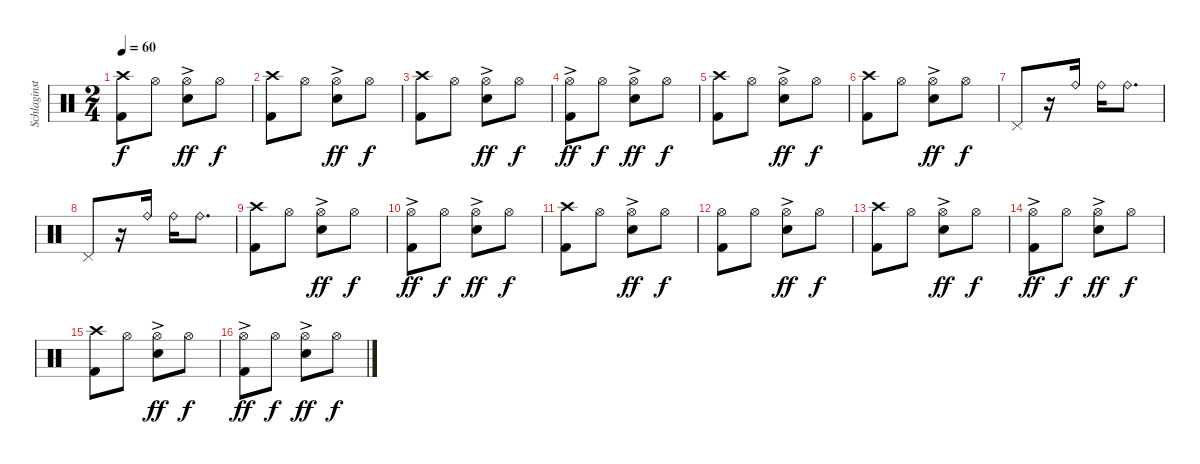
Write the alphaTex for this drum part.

\track ("Schlaginstrumente - Auswahl" "Schlaginst") {instrument percussion}
\staff {score}
\articulation defaults
\ts (2 4)
\tempo 60
\clef neutral
\ks c
("Crash high (hit)" "Kick (hit) 2").8{dy f} "Hi-Hat (open)".8 ("Hi-Hat (open)"{ac} "Snare (hit) 2").8{dy ff} "Hi-Hat (open)".8{dy f} |
("Crash high (hit)" "Kick (hit) 2").8 "Hi-Hat (open)".8 ("Hi-Hat (open)"{ac} "Snare (hit) 2").8{dy ff} "Hi-Hat (open)".8{dy f} |
("Crash high (hit)" "Kick (hit) 2").8 "Hi-Hat (open)".8 ("Hi-Hat (open)"{ac} "Snare (hit) 2").8{dy ff} "Hi-Hat (open)".8{dy f} |
("Hi-Hat (open)"{ac} "Kick (hit) 2").8{dy ff} "Hi-Hat (open)".8{dy f} ("Hi-Hat (open)"{ac} "Snare (hit) 2").8{dy ff} "Hi-Hat (open)".8{dy f} |
("Crash high (hit)" "Kick (hit) 2").8 "Hi-Hat (open)".8 ("Hi-Hat (open)"{ac} "Snare (hit) 2").8{dy ff} "Hi-Hat (open)".8{dy f} |
("Crash high (hit)" "Kick (hit) 2").8 "Hi-Hat (open)".8 ("Hi-Hat (open)"{ac} "Snare (hit) 2").8{dy ff} "Hi-Hat (open)".8{dy f} |
"Pedal Hi-Hat (hit)".8 r.16 "Ride (bell)".16 "Ride (bell)".16 "Ride (bell)".8{d} |
"Pedal Hi-Hat (hit)".8 r.16 "Ride (bell)".16 "Ride (bell)".16 "Ride (bell)".8{d} |
("Crash high (hit)" "Kick (hit) 2").8 "Hi-Hat (open)".8 ("Hi-Hat (open)"{ac} "Snare (hit) 2").8{dy ff} "Hi-Hat (open)".8{dy f} |
("Hi-Hat (open)"{ac} "Kick (hit) 2").8{dy ff} "Hi-Hat (open)".8{dy f} ("Hi-Hat (open)"{ac} "Snare (hit) 2").8{dy ff} "Hi-Hat (open)".8{dy f} |
("Crash high (hit)" "Kick (hit) 2").8 "Hi-Hat (open)".8 ("Hi-Hat (open)"{ac} "Snare (hit) 2").8{dy ff} "Hi-Hat (open)".8{dy f} |
("Hi-Hat (open)" "Kick (hit) 2").8 "Hi-Hat (open)".8 ("Hi-Hat (open)"{ac} "Snare (hit) 2").8{dy ff} "Hi-Hat (open)".8{dy f} |
("Crash high (hit)" "Kick (hit) 2").8 "Hi-Hat (open)".8 ("Hi-Hat (open)"{ac} "Snare (hit) 2").8{dy ff} "Hi-Hat (open)".8{dy f} |
("Hi-Hat (open)"{ac} "Kick (hit) 2").8{dy ff} "Hi-Hat (open)".8{dy f} ("Hi-Hat (open)"{ac} "Snare (hit) 2").8{dy ff} "Hi-Hat (open)".8{dy f} |
("Crash high (hit)" "Kick (hit) 2").8 "Hi-Hat (open)".8 ("Hi-Hat (open)"{ac} "Snare (hit) 2").8{dy ff} "Hi-Hat (open)".8{dy f} |
("Hi-Hat (open)"{ac} "Kick (hit) 2").8{dy ff} "Hi-Hat (open)".8{dy f} ("Hi-Hat (open)"{ac} "Snare (hit) 2").8{dy ff} "Hi-Hat (open)".8{dy f}
